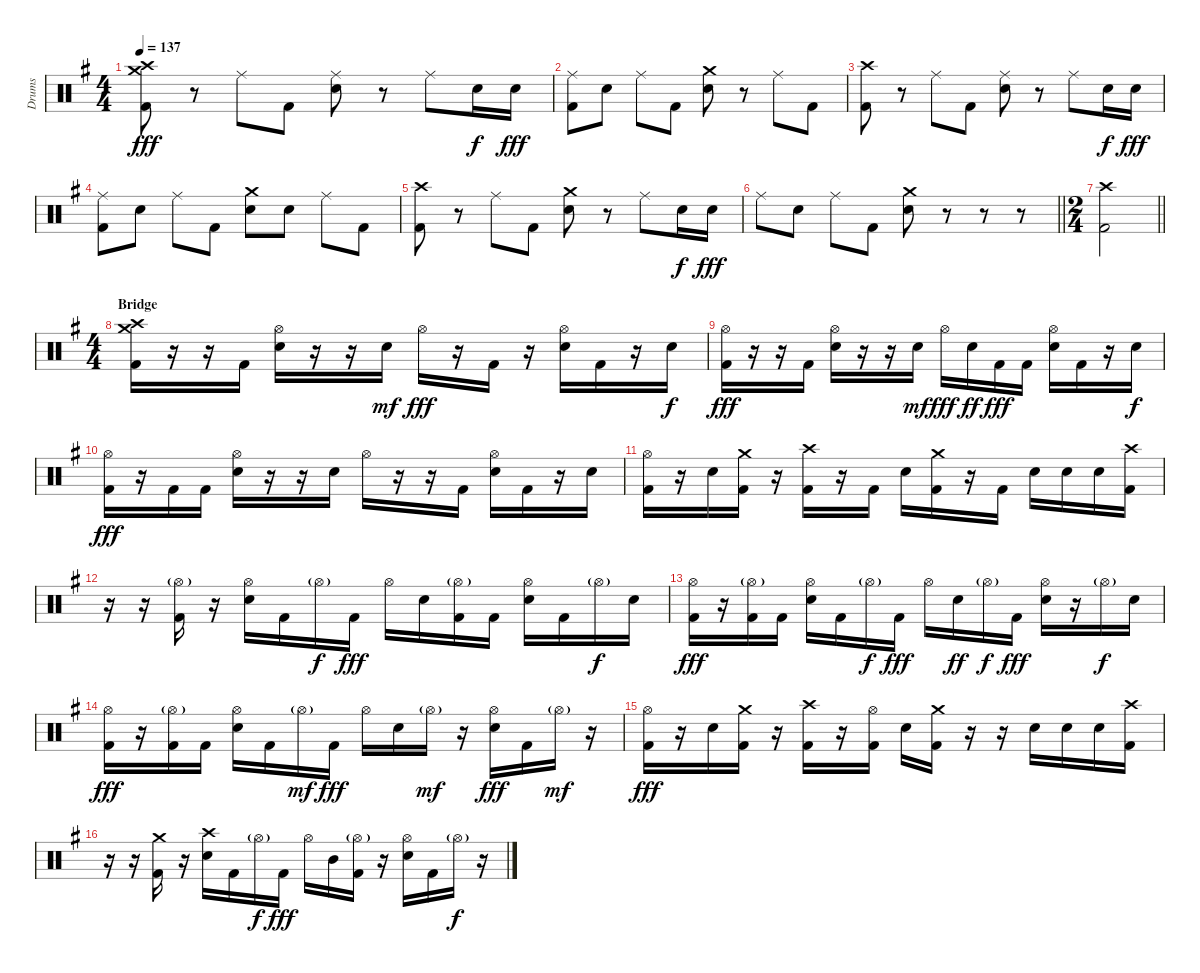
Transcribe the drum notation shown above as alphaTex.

\track ("Drums" "Drums") {instrument percussion}
\staff {score}
\articulation defaults
\ts (4 4)
\tempo 137
\clef neutral
\ks eminor
("Crash medium (hit)" "Crash high (hit)" "Kick (hit) 2").8{dy fff} r.8 "Ride (middle)".8 "Kick (hit) 2".8 ("Ride (middle)" "Electric Snare (hit)").8 r.8 "Ride (middle)".8 "Electric Snare (hit)".16{dy f} "Electric Snare (hit)".16{dy fff} |
("Ride (middle)" "Kick (hit) 2").8 "Electric Snare (hit)".8 "Ride (middle)".8 "Kick (hit) 2".8 ("Crash medium (hit)" "Electric Snare (hit)").8 r.8 "Ride (middle)".8 "Kick (hit) 2".8 |
("Crash high (hit)" "Kick (hit) 2").8 r.8 "Ride (middle)".8 "Kick (hit) 2".8 ("Ride (middle)" "Electric Snare (hit)").8 r.8 "Ride (middle)".8 "Electric Snare (hit)".16{dy f} "Electric Snare (hit)".16{dy fff} |
("Ride (middle)" "Kick (hit) 2").8 "Electric Snare (hit)".8 "Ride (middle)".8 "Kick (hit) 2".8 ("Crash medium (hit)" "Electric Snare (hit)").8 "Electric Snare (hit)".8 "Ride (middle)".8 "Kick (hit) 2".8 |
("Crash high (hit)" "Kick (hit) 2").8 r.8 "Ride (middle)".8 "Kick (hit) 2".8 ("Crash medium (hit)" "Electric Snare (hit)").8 r.8 "Ride (middle)".8 "Electric Snare (hit)".16{dy f} "Electric Snare (hit)".16{dy fff} |
\barLineRight lightlight "Ride (middle)".8 "Electric Snare (hit)".8 "Ride (middle)".8 "Kick (hit) 2".8
("Crash medium (hit)" "Electric Snare (hit)").8 r.8 r.8 r.8 |
\ts (2 4)
\barLineRight lightlight
("Crash high (hit)" "Kick (hit) 2").2 |
\ts (4 4)
\section ("" "Bridge")
("Crash medium (hit)" "Crash high (hit)" "Kick (hit) 2").16 r.16 r.16 "Kick (hit) 2".16 ("Hi-Hat (open)" "Electric Snare (hit)").16 r.16 r.16 "Electric Snare (hit)".16{dy mf} "Hi-Hat (open)".16{dy fff} r.16 "Kick (hit) 2".16 r.16 ("Hi-Hat (open)" "Electric Snare (hit)").16 "Kick (hit) 2".16 r.16 "Electric Snare (hit)".16{dy f} |
("Hi-Hat (open)" "Kick (hit) 2").16{dy fff} r.16 r.16 "Kick (hit) 2".16 ("Hi-Hat (open)" "Electric Snare (hit)").16 r.16 r.16 "Electric Snare (hit)".16{dy mf} "Hi-Hat (open)".16{dy fff} "Electric Snare (hit)".16{dy ff} "Kick (hit) 2".16{dy fff} "Kick (hit) 2".16 ("Hi-Hat (open)" "Electric Snare (hit)").16 "Kick (hit) 2".16 r.16 "Electric Snare (hit)".16{dy f} |
("Hi-Hat (open)" "Kick (hit) 2").16{dy fff} r.16 "Kick (hit) 2".16 "Kick (hit) 2".16 ("Hi-Hat (open)" "Electric Snare (hit)").16 r.16 r.16 "Electric Snare (hit)".16 "Hi-Hat (open)".16 r.16 r.16 "Kick (hit) 2".16 ("Hi-Hat (open)" "Electric Snare (hit)").16 "Kick (hit) 2".16 r.16 "Electric Snare (hit)".16 |
("Hi-Hat (open)" "Kick (hit) 2").16 r.16 "Electric Snare (hit)".16 ("Crash medium (hit)" "Kick (hit) 2").16 r.16 ("Crash high (hit)" "Kick (hit) 2").16 r.16 "Kick (hit) 2".16 "Electric Snare (hit)".16 ("Crash medium (hit)" "Kick (hit) 2").16 r.16 "Kick (hit) 2".16 "Electric Snare (hit)".16 "Electric Snare (hit)".16 "Electric Snare (hit)".16 ("Crash high (hit)" "Kick (hit) 2").16 |
r.16 r.16 ("Hi-Hat (open)"{g} "Kick (hit) 2").16 r.16 ("Hi-Hat (open)" "Electric Snare (hit)").16 "Kick (hit) 2".16 "Hi-Hat (open)"{g}.16{dy f} "Kick (hit) 2".16{dy fff} "Hi-Hat (open)".16 "Electric Snare (hit)".16 ("Hi-Hat (open)"{g} "Kick (hit) 2").16 "Kick (hit) 2".16 ("Hi-Hat (open)" "Electric Snare (hit)").16 "Kick (hit) 2".16 "Hi-Hat (open)"{g}.16{dy f} "Electric Snare (hit)".16 |
("Hi-Hat (open)" "Kick (hit) 2").16{dy fff} r.16 ("Hi-Hat (open)"{g} "Kick (hit) 2").16 "Kick (hit) 2".16 ("Hi-Hat (open)" "Electric Snare (hit)").16 "Kick (hit) 2".16 "Hi-Hat (open)"{g}.16{dy f} "Kick (hit) 2".16{dy fff} "Hi-Hat (open)".16 "Electric Snare (hit)".16{dy ff} "Hi-Hat (open)"{g}.16{dy f} "Kick (hit) 2".16{dy fff} ("Hi-Hat (open)" "Electric Snare (hit)").16 r.16 "Hi-Hat (open)"{g}.16{dy f} "Electric Snare (hit)".16 |
("Hi-Hat (open)" "Kick (hit) 2").16{dy fff} r.16 ("Hi-Hat (open)"{g} "Kick (hit) 2").16 "Kick (hit) 2".16 ("Hi-Hat (open)" "Electric Snare (hit)").16 "Kick (hit) 2".16 "Hi-Hat (open)"{g}.16{dy mf} "Kick (hit) 2".16{dy fff} "Hi-Hat (open)".16 "Electric Snare (hit)".16 "Hi-Hat (open)"{g}.16{dy mf} r.16 ("Hi-Hat (open)" "Electric Snare (hit)").16{dy fff} "Kick (hit) 2".16 "Hi-Hat (open)"{g}.16{dy mf} r.16 |
("Hi-Hat (open)" "Kick (hit) 2").16{dy fff} r.16 "Electric Snare (hit)".16 ("Crash medium (hit)" "Kick (hit) 2").16 r.16 ("Crash high (hit)" "Kick (hit) 2").16 r.16 ("Hi-Hat (open)" "Kick (hit) 2").16 "Electric Snare (hit)".16 ("Crash medium (hit)" "Kick (hit) 2").16 r.16 r.16 "Electric Snare (hit)".16 "Electric Snare (hit)".16 "Electric Snare (hit)".16 ("Crash high (hit)" "Kick (hit) 2").16 |
r.16 r.16 ("Crash medium (hit)" "Kick (hit) 2").16 r.16 ("Crash high (hit)" "Electric Snare (hit)").16 "Kick (hit) 2".16 "Hi-Hat (open)"{g}.16{dy f} "Kick (hit) 2".16{dy fff} "Hi-Hat (open)".16 "Mid Tom (hit)".16 ("Hi-Hat (open)"{g} "Kick (hit) 2").16 r.16 ("Hi-Hat (open)" "Electric Snare (hit)").16 "Kick (hit) 2".16 "Hi-Hat (open)"{g}.16{dy f} r.16
